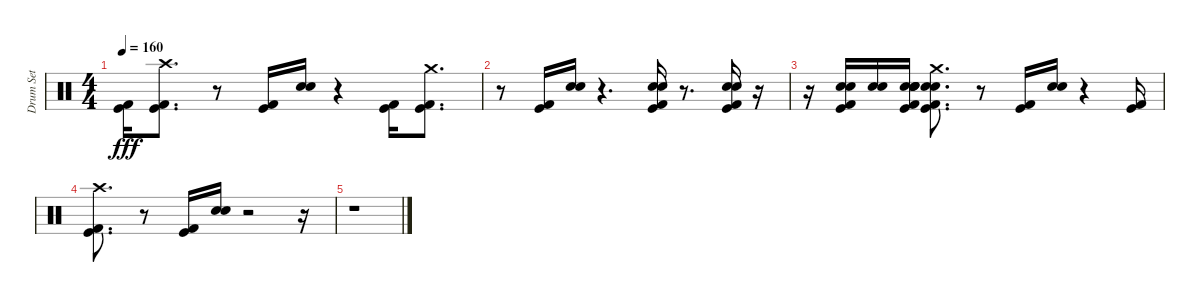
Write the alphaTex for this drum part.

\track ("Drum Set" "Drum Set") {instrument percussion}
\staff {score}
\articulation defaults
\ts (4 4)
\tempo 160
\clef neutral
\ks c
("Kick (hit) 2" "Kick (hit)").16{dy fff} ("Kick (hit)" "Kick (hit) 2" "Crash high (hit)").8{d} r.8 ("Kick (hit)" "Kick (hit) 2").16 ("Snare (hit) 2" "Electric Snare (hit)").16 r.4 ("Kick (hit) 2" "Kick (hit)").16 ("Kick (hit)" "Kick (hit) 2" "Crash medium (hit)").8{d} |
r.8 ("Kick (hit) 2" "Kick (hit)").16 ("Snare (hit) 2" "Electric Snare (hit)").16 r.4{d} ("Kick (hit) 2" "Kick (hit)" "Snare (hit) 2" "Electric Snare (hit)").16 r.8{d} ("Kick (hit)" "Kick (hit) 2" "Snare (hit) 2" "Electric Snare (hit)").16 r.16 |
r.16 ("Kick (hit)" "Kick (hit) 2" "Snare (hit) 2" "Electric Snare (hit)").16 ("Electric Snare (hit)" "Snare (hit) 2").16 ("Kick (hit)" "Snare (hit) 2" "Kick (hit) 2" "Electric Snare (hit)" "Snare (hit) 2" "Electric Snare (hit)").16 ("Snare (hit) 2" "Electric Snare (hit)" "Kick (hit) 2" "Kick (hit)" "Crash medium (hit)").8{d} r.8 ("Kick (hit) 2" "Kick (hit)").16 ("Electric Snare (hit)" "Snare (hit) 2").16 r.4 ("Kick (hit) 2" "Kick (hit)").16 |
("Kick (hit)" "Kick (hit) 2" "Crash high (hit)").8{d} r.8 ("Kick (hit)" "Kick (hit) 2").16 ("Snare (hit) 2" "Electric Snare (hit)").16 r.2 r.16 |
r.1
